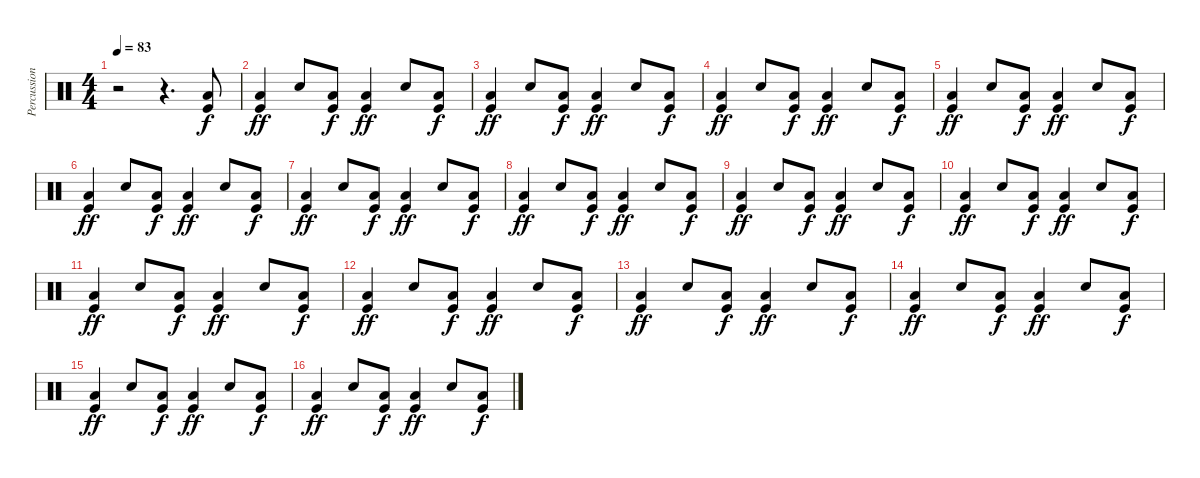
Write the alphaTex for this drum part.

\track ("Percussion" "Percussion") {instrument percussion}
\staff {score}
\articulation defaults
\ts (4 4)
\tempo 83
\clef neutral
\ks c
r.2{dy f} r.4{d} ("Kick (hit)" "Low Tom (hit)").8 |
("Kick (hit)" "Low Tom (hit)").4{dy ff} "Snare (hit) 2".8 ("Kick (hit)" "Low Tom (hit)").8{dy f} ("Kick (hit)" "Low Tom (hit)").4{dy ff} "Snare (hit) 2".8 ("Kick (hit)" "Low Tom (hit)").8{dy f} |
("Kick (hit)" "Low Tom (hit)").4{dy ff} "Snare (hit) 2".8 ("Kick (hit)" "Low Tom (hit)").8{dy f} ("Kick (hit)" "Low Tom (hit)").4{dy ff} "Snare (hit) 2".8 ("Kick (hit)" "Low Tom (hit)").8{dy f} |
("Kick (hit)" "Low Tom (hit)").4{dy ff} "Snare (hit) 2".8 ("Kick (hit)" "Low Tom (hit)").8{dy f} ("Kick (hit)" "Low Tom (hit)").4{dy ff} "Snare (hit) 2".8 ("Kick (hit)" "Low Tom (hit)").8{dy f} |
("Kick (hit)" "Low Tom (hit)").4{dy ff} "Snare (hit) 2".8 ("Kick (hit)" "Low Tom (hit)").8{dy f} ("Kick (hit)" "Low Tom (hit)").4{dy ff} "Snare (hit) 2".8 ("Kick (hit)" "Low Tom (hit)").8{dy f} |
("Kick (hit)" "Low Tom (hit)").4{dy ff} "Snare (hit) 2".8 ("Kick (hit)" "Low Tom (hit)").8{dy f} ("Kick (hit)" "Low Tom (hit)").4{dy ff} "Snare (hit) 2".8 ("Kick (hit)" "Low Tom (hit)").8{dy f} |
("Kick (hit)" "Low Tom (hit)").4{dy ff} "Snare (hit) 2".8 ("Kick (hit)" "Low Tom (hit)").8{dy f} ("Kick (hit)" "Low Tom (hit)").4{dy ff} "Snare (hit) 2".8 ("Kick (hit)" "Low Tom (hit)").8{dy f} |
("Kick (hit)" "Low Tom (hit)").4{dy ff} "Snare (hit) 2".8 ("Kick (hit)" "Low Tom (hit)").8{dy f} ("Kick (hit)" "Low Tom (hit)").4{dy ff} "Snare (hit) 2".8 ("Kick (hit)" "Low Tom (hit)").8{dy f} |
("Kick (hit)" "Low Tom (hit)").4{dy ff} "Snare (hit) 2".8 ("Kick (hit)" "Low Tom (hit)").8{dy f} ("Kick (hit)" "Low Tom (hit)").4{dy ff} "Snare (hit) 2".8 ("Kick (hit)" "Low Tom (hit)").8{dy f} |
("Kick (hit)" "Low Tom (hit)").4{dy ff} "Snare (hit) 2".8 ("Kick (hit)" "Low Tom (hit)").8{dy f} ("Kick (hit)" "Low Tom (hit)").4{dy ff} "Snare (hit) 2".8 ("Kick (hit)" "Low Tom (hit)").8{dy f} |
("Kick (hit)" "Low Tom (hit)").4{dy ff} "Snare (hit) 2".8 ("Kick (hit)" "Low Tom (hit)").8{dy f} ("Kick (hit)" "Low Tom (hit)").4{dy ff} "Snare (hit) 2".8 ("Kick (hit)" "Low Tom (hit)").8{dy f} |
("Kick (hit)" "Low Tom (hit)").4{dy ff} "Snare (hit) 2".8 ("Kick (hit)" "Low Tom (hit)").8{dy f} ("Kick (hit)" "Low Tom (hit)").4{dy ff} "Snare (hit) 2".8 ("Kick (hit)" "Low Tom (hit)").8{dy f} |
("Kick (hit)" "Low Tom (hit)").4{dy ff} "Snare (hit) 2".8 ("Kick (hit)" "Low Tom (hit)").8{dy f} ("Kick (hit)" "Low Tom (hit)").4{dy ff} "Snare (hit) 2".8 ("Kick (hit)" "Low Tom (hit)").8{dy f} |
("Kick (hit)" "Low Tom (hit)").4{dy ff} "Snare (hit) 2".8 ("Kick (hit)" "Low Tom (hit)").8{dy f} ("Kick (hit)" "Low Tom (hit)").4{dy ff} "Snare (hit) 2".8 ("Kick (hit)" "Low Tom (hit)").8{dy f} |
("Kick (hit)" "Low Tom (hit)").4{dy ff} "Snare (hit) 2".8 ("Kick (hit)" "Low Tom (hit)").8{dy f} ("Kick (hit)" "Low Tom (hit)").4{dy ff} "Snare (hit) 2".8 ("Kick (hit)" "Low Tom (hit)").8{dy f} |
("Kick (hit)" "Low Tom (hit)").4{dy ff} "Snare (hit) 2".8 ("Kick (hit)" "Low Tom (hit)").8{dy f} ("Kick (hit)" "Low Tom (hit)").4{dy ff} "Snare (hit) 2".8 ("Kick (hit)" "Low Tom (hit)").8{dy f}
